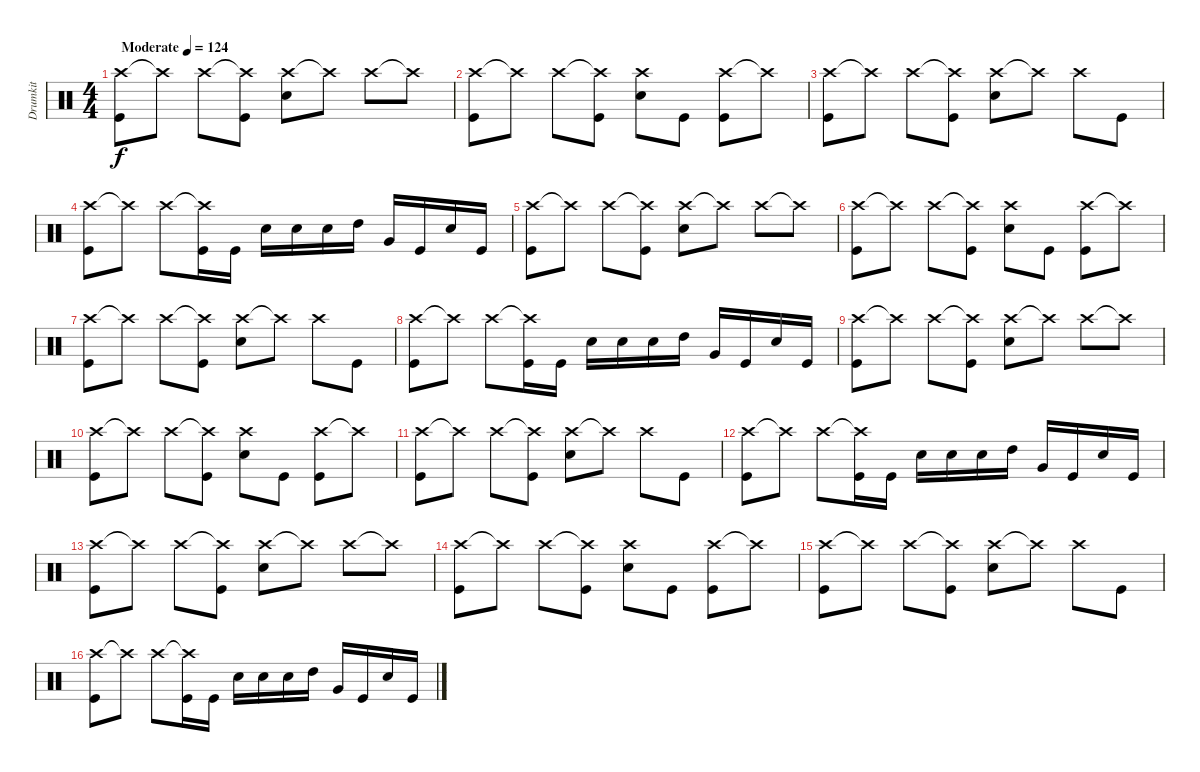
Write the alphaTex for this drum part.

\track ("Drumkit" "Drumkit") {instrument percussion}
\staff {score}
\articulation defaults
\ts (4 4)
\tempo (124 "Moderate")
\clef neutral
\ks c
("Crash high (hit)" "Kick (hit)").8{dy f} "Crash high (hit)"{t}.8 "Crash high (hit)".8 ("Crash high (hit)"{t} "Kick (hit)").8 ("Crash high (hit)" "Snare (hit) 2").8 "Crash high (hit)"{t}.8 "Crash high (hit)".8 "Crash high (hit)"{t}.8 |
("Crash high (hit)" "Kick (hit)").8 "Crash high (hit)"{t}.8 "Crash high (hit)".8 ("Crash high (hit)"{t} "Kick (hit)").8 ("Crash high (hit)" "Snare (hit) 2").8 "Kick (hit)".8 ("Crash high (hit)" "Kick (hit)").8 "Crash high (hit)"{t}.8 |
("Crash high (hit)" "Kick (hit)").8 "Crash high (hit)"{t}.8 "Crash high (hit)".8 ("Crash high (hit)"{t} "Kick (hit)").8 ("Crash high (hit)" "Snare (hit) 2").8 "Crash high (hit)"{t}.8 "Crash high (hit)".8 "Kick (hit)".8 |
("Crash high (hit)" "Kick (hit)").8 "Crash high (hit)"{t}.8 "Crash high (hit)".8 ("Crash high (hit)"{t} "Kick (hit)").16 "Kick (hit)".16 "Snare (hit) 2".16 "Snare (hit) 2".16 "Snare (hit) 2".16 "High Tom (hit)".16 "Very Low Tom (hit)".16 "Kick (hit)".16 "Snare (hit) 2".16 "Kick (hit)".16 |
("Crash high (hit)" "Kick (hit)").8 "Crash high (hit)"{t}.8 "Crash high (hit)".8 ("Crash high (hit)"{t} "Kick (hit)").8 ("Crash high (hit)" "Snare (hit) 2").8 "Crash high (hit)"{t}.8 "Crash high (hit)".8 "Crash high (hit)"{t}.8 |
("Crash high (hit)" "Kick (hit)").8 "Crash high (hit)"{t}.8 "Crash high (hit)".8 ("Crash high (hit)"{t} "Kick (hit)").8 ("Crash high (hit)" "Snare (hit) 2").8 "Kick (hit)".8 ("Crash high (hit)" "Kick (hit)").8 "Crash high (hit)"{t}.8 |
("Crash high (hit)" "Kick (hit)").8 "Crash high (hit)"{t}.8 "Crash high (hit)".8 ("Crash high (hit)"{t} "Kick (hit)").8 ("Crash high (hit)" "Snare (hit) 2").8 "Crash high (hit)"{t}.8 "Crash high (hit)".8 "Kick (hit)".8 |
("Crash high (hit)" "Kick (hit)").8 "Crash high (hit)"{t}.8 "Crash high (hit)".8 ("Crash high (hit)"{t} "Kick (hit)").16 "Kick (hit)".16 "Snare (hit) 2".16 "Snare (hit) 2".16 "Snare (hit) 2".16 "High Tom (hit)".16 "Very Low Tom (hit)".16 "Kick (hit)".16 "Snare (hit) 2".16 "Kick (hit)".16 |
("Crash high (hit)" "Kick (hit)").8 "Crash high (hit)"{t}.8 "Crash high (hit)".8 ("Crash high (hit)"{t} "Kick (hit)").8 ("Crash high (hit)" "Snare (hit) 2").8 "Crash high (hit)"{t}.8 "Crash high (hit)".8 "Crash high (hit)"{t}.8 |
("Crash high (hit)" "Kick (hit)").8 "Crash high (hit)"{t}.8 "Crash high (hit)".8 ("Crash high (hit)"{t} "Kick (hit)").8 ("Crash high (hit)" "Snare (hit) 2").8 "Kick (hit)".8 ("Crash high (hit)" "Kick (hit)").8 "Crash high (hit)"{t}.8 |
("Crash high (hit)" "Kick (hit)").8 "Crash high (hit)"{t}.8 "Crash high (hit)".8 ("Crash high (hit)"{t} "Kick (hit)").8 ("Crash high (hit)" "Snare (hit) 2").8 "Crash high (hit)"{t}.8 "Crash high (hit)".8 "Kick (hit)".8 |
("Crash high (hit)" "Kick (hit)").8 "Crash high (hit)"{t}.8 "Crash high (hit)".8 ("Crash high (hit)"{t} "Kick (hit)").16 "Kick (hit)".16 "Snare (hit) 2".16 "Snare (hit) 2".16 "Snare (hit) 2".16 "High Tom (hit)".16 "Very Low Tom (hit)".16 "Kick (hit)".16 "Snare (hit) 2".16 "Kick (hit)".16 |
("Crash high (hit)" "Kick (hit)").8 "Crash high (hit)"{t}.8 "Crash high (hit)".8 ("Crash high (hit)"{t} "Kick (hit)").8 ("Crash high (hit)" "Snare (hit) 2").8 "Crash high (hit)"{t}.8 "Crash high (hit)".8 "Crash high (hit)"{t}.8 |
("Crash high (hit)" "Kick (hit)").8 "Crash high (hit)"{t}.8 "Crash high (hit)".8 ("Crash high (hit)"{t} "Kick (hit)").8 ("Crash high (hit)" "Snare (hit) 2").8 "Kick (hit)".8 ("Crash high (hit)" "Kick (hit)").8 "Crash high (hit)"{t}.8 |
("Crash high (hit)" "Kick (hit)").8 "Crash high (hit)"{t}.8 "Crash high (hit)".8 ("Crash high (hit)"{t} "Kick (hit)").8 ("Crash high (hit)" "Snare (hit) 2").8 "Crash high (hit)"{t}.8 "Crash high (hit)".8 "Kick (hit)".8 |
("Crash high (hit)" "Kick (hit)").8 "Crash high (hit)"{t}.8 "Crash high (hit)".8 ("Crash high (hit)"{t} "Kick (hit)").16 "Kick (hit)".16 "Snare (hit) 2".16 "Snare (hit) 2".16 "Snare (hit) 2".16 "High Tom (hit)".16 "Very Low Tom (hit)".16 "Kick (hit)".16 "Snare (hit) 2".16 "Kick (hit)".16
